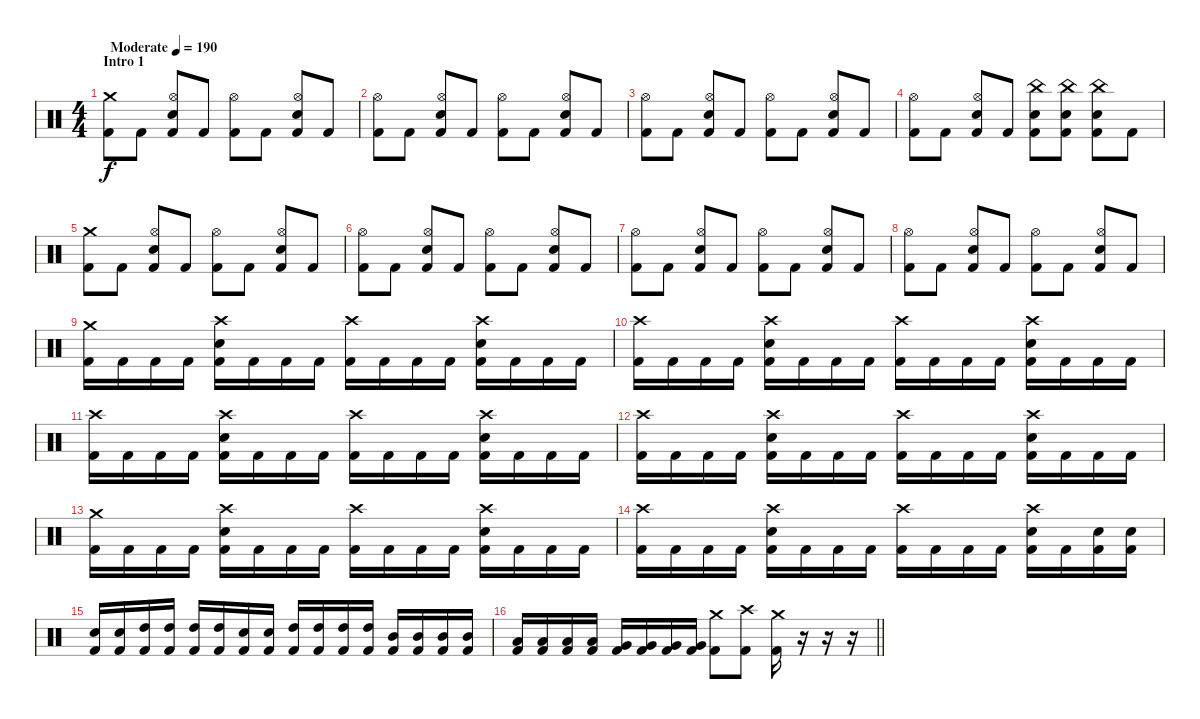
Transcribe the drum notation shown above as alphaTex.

\track "" {instrument percussion}
\staff {score}
\articulation defaults
\ts (4 4)
\section ("" "Intro 1")
\tempo (190 "Moderate")
\clef neutral
\ks c
("Crash medium (hit)" "Kick (hit) 2").8{dy f} "Kick (hit) 2".8 ("Hi-Hat (open)" "Electric Snare (hit)" "Kick (hit) 2").8 "Kick (hit) 2".8 ("Hi-Hat (open)" "Kick (hit) 2").8 "Kick (hit) 2".8 ("Hi-Hat (open)" "Electric Snare (hit)" "Kick (hit) 2").8 "Kick (hit) 2".8 |
("Hi-Hat (open)" "Kick (hit) 2").8 "Kick (hit) 2".8 ("Hi-Hat (open)" "Electric Snare (hit)" "Kick (hit) 2").8 "Kick (hit) 2".8 ("Hi-Hat (open)" "Kick (hit) 2").8 "Kick (hit) 2".8 ("Hi-Hat (open)" "Electric Snare (hit)" "Kick (hit) 2").8 "Kick (hit) 2".8 |
("Hi-Hat (open)" "Kick (hit) 2").8 "Kick (hit) 2".8 ("Hi-Hat (open)" "Electric Snare (hit)" "Kick (hit) 2").8 "Kick (hit) 2".8 ("Hi-Hat (open)" "Kick (hit) 2").8 "Kick (hit) 2".8 ("Hi-Hat (open)" "Electric Snare (hit)" "Kick (hit) 2").8 "Kick (hit) 2".8 |
("Hi-Hat (open)" "Kick (hit) 2").8 "Kick (hit) 2".8 ("Hi-Hat (open)" "Electric Snare (hit)" "Kick (hit) 2").8 "Kick (hit) 2".8 ("China (hit)" "Electric Snare (hit)" "Kick (hit) 2").8 ("China (hit)" "Electric Snare (hit)" "Kick (hit) 2").8 ("China (hit)" "Electric Snare (hit)" "Kick (hit) 2").8 "Kick (hit) 2".8 |
("Crash medium (hit)" "Kick (hit) 2").8 "Kick (hit) 2".8 ("Hi-Hat (open)" "Electric Snare (hit)" "Kick (hit) 2").8 "Kick (hit) 2".8 ("Hi-Hat (open)" "Kick (hit) 2").8 "Kick (hit) 2".8 ("Hi-Hat (open)" "Electric Snare (hit)" "Kick (hit) 2").8 "Kick (hit) 2".8 |
("Hi-Hat (open)" "Kick (hit) 2").8 "Kick (hit) 2".8 ("Hi-Hat (open)" "Electric Snare (hit)" "Kick (hit) 2").8 "Kick (hit) 2".8 ("Hi-Hat (open)" "Kick (hit) 2").8 "Kick (hit) 2".8 ("Hi-Hat (open)" "Electric Snare (hit)" "Kick (hit) 2").8 "Kick (hit) 2".8 |
("Hi-Hat (open)" "Kick (hit) 2").8 "Kick (hit) 2".8 ("Hi-Hat (open)" "Electric Snare (hit)" "Kick (hit) 2").8 "Kick (hit) 2".8 ("Hi-Hat (open)" "Kick (hit) 2").8 "Kick (hit) 2".8 ("Hi-Hat (open)" "Electric Snare (hit)" "Kick (hit) 2").8 "Kick (hit) 2".8 |
("Hi-Hat (open)" "Kick (hit) 2").8 "Kick (hit) 2".8 ("Hi-Hat (open)" "Electric Snare (hit)" "Kick (hit) 2").8 "Kick (hit) 2".8 ("Hi-Hat (open)" "Kick (hit) 2").8 "Kick (hit) 2".8 ("Hi-Hat (open)" "Electric Snare (hit)" "Kick (hit) 2").8 "Kick (hit) 2".8 |
("Crash medium (hit)" "Kick (hit) 2").16 "Kick (hit) 2".16 "Kick (hit) 2".16 "Kick (hit) 2".16 ("Crash high (hit)" "Electric Snare (hit)" "Kick (hit) 2").16 "Kick (hit) 2".16 "Kick (hit) 2".16 "Kick (hit) 2".16 ("Crash high (hit)" "Kick (hit) 2").16 "Kick (hit) 2".16 "Kick (hit) 2".16 "Kick (hit) 2".16 ("Crash high (hit)" "Electric Snare (hit)" "Kick (hit) 2").16 "Kick (hit) 2".16 "Kick (hit) 2".16 "Kick (hit) 2".16 |
("Crash high (hit)" "Kick (hit) 2").16 "Kick (hit) 2".16 "Kick (hit) 2".16 "Kick (hit) 2".16 ("Crash high (hit)" "Electric Snare (hit)" "Kick (hit) 2").16 "Kick (hit) 2".16 "Kick (hit) 2".16 "Kick (hit) 2".16 ("Crash high (hit)" "Kick (hit) 2").16 "Kick (hit) 2".16 "Kick (hit) 2".16 "Kick (hit) 2".16 ("Crash high (hit)" "Electric Snare (hit)" "Kick (hit) 2").16 "Kick (hit) 2".16 "Kick (hit) 2".16 "Kick (hit) 2".16 |
("Crash high (hit)" "Kick (hit) 2").16 "Kick (hit) 2".16 "Kick (hit) 2".16 "Kick (hit) 2".16 ("Crash high (hit)" "Electric Snare (hit)" "Kick (hit) 2").16 "Kick (hit) 2".16 "Kick (hit) 2".16 "Kick (hit) 2".16 ("Crash high (hit)" "Kick (hit) 2").16 "Kick (hit) 2".16 "Kick (hit) 2".16 "Kick (hit) 2".16 ("Crash high (hit)" "Electric Snare (hit)" "Kick (hit) 2").16 "Kick (hit) 2".16 "Kick (hit) 2".16 "Kick (hit) 2".16 |
("Crash high (hit)" "Kick (hit) 2").16 "Kick (hit) 2".16 "Kick (hit) 2".16 "Kick (hit) 2".16 ("Crash high (hit)" "Electric Snare (hit)" "Kick (hit) 2").16 "Kick (hit) 2".16 "Kick (hit) 2".16 "Kick (hit) 2".16 ("Crash high (hit)" "Kick (hit) 2").16 "Kick (hit) 2".16 "Kick (hit) 2".16 "Kick (hit) 2".16 ("Crash high (hit)" "Electric Snare (hit)" "Kick (hit) 2").16 "Kick (hit) 2".16 "Kick (hit) 2".16 "Kick (hit) 2".16 |
("Crash medium (hit)" "Kick (hit) 2").16 "Kick (hit) 2".16 "Kick (hit) 2".16 "Kick (hit) 2".16 ("Crash high (hit)" "Electric Snare (hit)" "Kick (hit) 2").16 "Kick (hit) 2".16 "Kick (hit) 2".16 "Kick (hit) 2".16 ("Crash high (hit)" "Kick (hit) 2").16 "Kick (hit) 2".16 "Kick (hit) 2".16 "Kick (hit) 2".16 ("Crash high (hit)" "Electric Snare (hit)" "Kick (hit) 2").16 "Kick (hit) 2".16 "Kick (hit) 2".16 "Kick (hit) 2".16 |
("Crash high (hit)" "Kick (hit) 2").16 "Kick (hit) 2".16 "Kick (hit) 2".16 "Kick (hit) 2".16 ("Crash high (hit)" "Electric Snare (hit)" "Kick (hit) 2").16 "Kick (hit) 2".16 "Kick (hit) 2".16 "Kick (hit) 2".16 ("Crash high (hit)" "Kick (hit) 2").16 "Kick (hit) 2".16 "Kick (hit) 2".16 "Kick (hit) 2".16 ("Crash high (hit)" "Electric Snare (hit)" "Kick (hit) 2").16 "Kick (hit) 2".16 ("Electric Snare (hit)" "Kick (hit) 2").16 ("Electric Snare (hit)" "Kick (hit) 2").16 |
("Electric Snare (hit)" "Kick (hit) 2").16 ("Electric Snare (hit)" "Kick (hit) 2").16 ("High Tom (hit)" "Kick (hit) 2").16 ("High Tom (hit)" "Kick (hit) 2").16 ("High Tom (hit)" "Kick (hit) 2").16 ("High Tom (hit)" "Kick (hit) 2").16 ("Electric Snare (hit)" "Kick (hit) 2").16 ("Electric Snare (hit)" "Kick (hit) 2").16 ("High Tom (hit)" "Kick (hit) 2").16 ("High Tom (hit)" "Kick (hit) 2").16 ("High Tom (hit)" "Kick (hit) 2").16 ("High Tom (hit)" "Kick (hit) 2").16 ("Mid Tom (hit)" "Kick (hit) 2").16 ("Mid Tom (hit)" "Kick (hit) 2").16 ("Mid Tom (hit)" "Kick (hit) 2").16 ("Mid Tom (hit)" "Kick (hit) 2").16 |
\barLineRight lightlight
("Low Tom (hit)" "Kick (hit) 2").16 ("Low Tom (hit)" "Kick (hit) 2").16 ("Low Tom (hit)" "Kick (hit) 2").16 ("Low Tom (hit)" "Kick (hit) 2").16 ("Very Low Tom (hit)" "Kick (hit) 2").16 ("Very Low Tom (hit)" "Kick (hit) 2").16 ("Very Low Tom (hit)" "Kick (hit) 2").16 ("Very Low Tom (hit)" "Kick (hit) 2").16 ("Crash medium (hit)" "Kick (hit) 2").8 ("Crash high (hit)" "Kick (hit) 2").8 ("Crash medium (hit)" "Kick (hit) 2").16 r.16 r.16{volume 0} r.16
